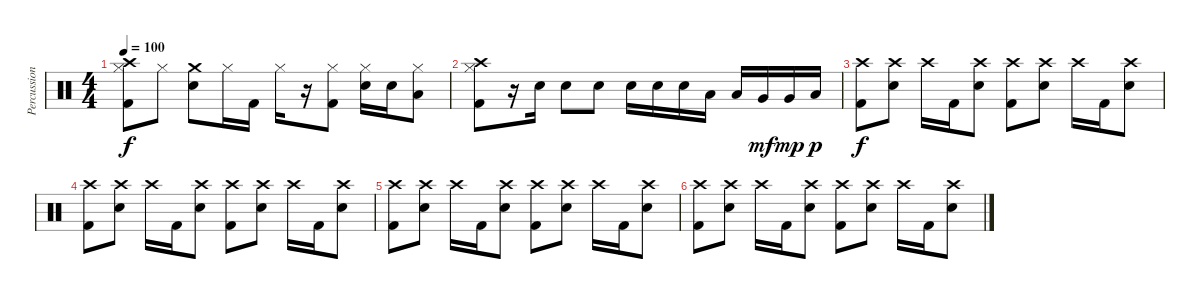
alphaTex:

\track ("Percussion" "Percussion") {instrument percussion}
\staff {score}
\articulation defaults
\ts (4 4)
\tempo 100
\clef neutral
\ks c
("Hi-Hat (closed)" "Crash high (hit)" "Kick (hit) 2").8{dy f} "Hi-Hat (closed)".8 ("Crash medium (hit)" "Electric Snare (hit)").8 "Hi-Hat (closed)".16 "Kick (hit) 2".16 "Hi-Hat (closed)".16 r.16 ("Hi-Hat (closed)" "Kick (hit) 2").8 ("Hi-Hat (closed)" "Electric Snare (hit)").16 "Electric Snare (hit)".16 ("Hi-Hat (closed)" "Low Floor Tom (hit)").8 |
("Hi-Hat (closed)" "Crash high (hit)" "Kick (hit) 2").8 r.16 "Electric Snare (hit)".16 "Electric Snare (hit)".8 "Electric Snare (hit)".8 "Electric Snare (hit)".16 "Electric Snare (hit)".16 "Electric Snare (hit)".16 "Low Tom (hit)".16 "Low Tom (hit)".16 "Very Low Tom (hit)".16{dy mf} "Very Low Tom (hit)".16{dy mp} "Low Floor Tom (hit)".16{dy p} |
("Crash high (hit)" "Kick (hit) 2").8{dy f} ("Crash high (hit)" "Electric Snare (hit)").8 "Crash high (hit)".16 "Kick (hit) 2".16 ("Crash high (hit)" "Electric Snare (hit)").8 ("Crash high (hit)" "Kick (hit) 2").8 ("Crash high (hit)" "Electric Snare (hit)").8 "Crash high (hit)".16 "Kick (hit) 2".16 ("Crash high (hit)" "Electric Snare (hit)").8 |
("Crash high (hit)" "Kick (hit) 2").8 ("Crash high (hit)" "Electric Snare (hit)").8 "Crash high (hit)".16 "Kick (hit) 2".16 ("Crash high (hit)" "Electric Snare (hit)").8 ("Crash high (hit)" "Kick (hit) 2").8 ("Crash high (hit)" "Electric Snare (hit)").8 "Crash high (hit)".16 "Kick (hit) 2".16 ("Crash high (hit)" "Electric Snare (hit)").8 |
("Crash high (hit)" "Kick (hit) 2").8 ("Crash high (hit)" "Electric Snare (hit)").8 "Crash high (hit)".16 "Kick (hit) 2".16 ("Crash high (hit)" "Electric Snare (hit)").8 ("Crash high (hit)" "Kick (hit) 2").8 ("Crash high (hit)" "Electric Snare (hit)").8 "Crash high (hit)".16 "Kick (hit) 2".16 ("Crash high (hit)" "Electric Snare (hit)").8 |
("Crash high (hit)" "Kick (hit) 2").8 ("Crash high (hit)" "Electric Snare (hit)").8 "Crash high (hit)".16 "Kick (hit) 2".16 ("Crash high (hit)" "Electric Snare (hit)").8 ("Crash high (hit)" "Kick (hit) 2").8 ("Crash high (hit)" "Electric Snare (hit)").8 "Crash high (hit)".16 "Kick (hit) 2".16 ("Crash high (hit)" "Electric Snare (hit)").8
